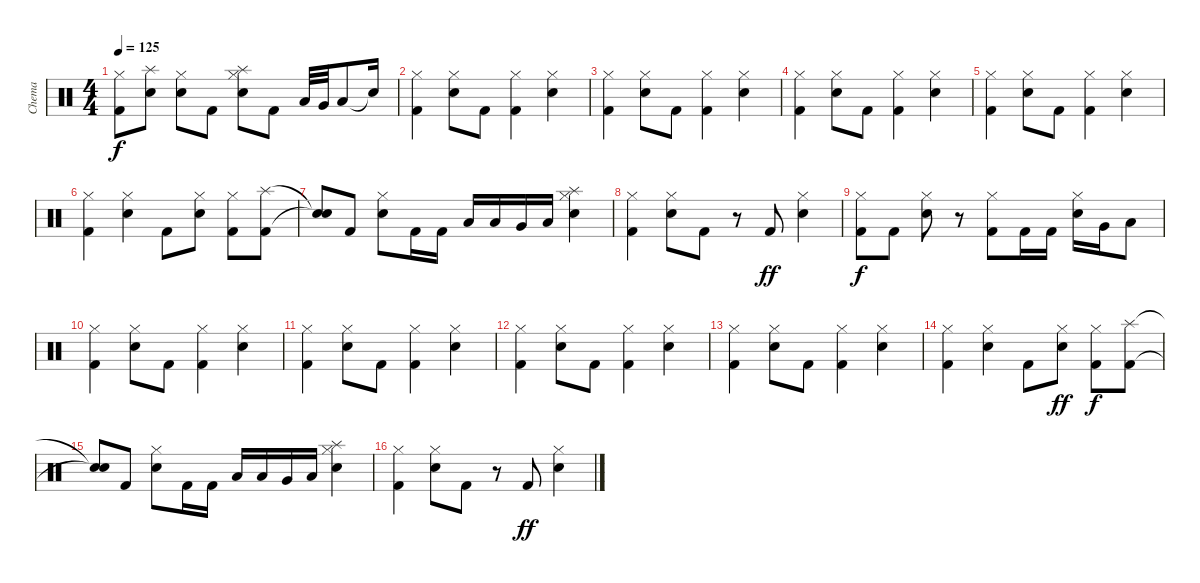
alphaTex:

\track ("Chema" "Chema") {instrument percussion}
\staff {score}
\articulation defaults
\ts (4 4)
\tempo 125
\clef neutral
\ks c
("Hi-Hat (closed)" "Kick (hit) 2").8{dy f} ("Snare (hit) 2" "Splash (hit)").8 ("Hi-Hat (closed)" "Snare (hit) 2").8 "Kick (hit) 2".8 ("Hi-Hat (closed)" "Snare (hit) 2" "Splash (hit)").8 "Kick (hit) 2".8 "Low Tom (hit)".32 "Very Low Tom (hit)".32 "Low Floor Tom (hit)".8 "Snare (hit)"{t}.16 |
("Hi-Hat (closed)" "Kick (hit) 2").4 ("Hi-Hat (closed)" "Snare (hit) 2").8 "Kick (hit) 2".8 ("Hi-Hat (closed)" "Kick (hit) 2").4 ("Hi-Hat (closed)" "Snare (hit) 2").4 |
("Hi-Hat (closed)" "Kick (hit) 2").4 ("Hi-Hat (closed)" "Snare (hit) 2").8 "Kick (hit) 2".8 ("Hi-Hat (closed)" "Kick (hit) 2").4 ("Hi-Hat (closed)" "Snare (hit) 2").4 |
("Hi-Hat (closed)" "Kick (hit) 2").4 ("Hi-Hat (closed)" "Snare (hit) 2").8 "Kick (hit) 2".8 ("Hi-Hat (closed)" "Kick (hit) 2").4 ("Hi-Hat (closed)" "Snare (hit) 2").4 |
("Hi-Hat (closed)" "Kick (hit) 2").4 ("Hi-Hat (closed)" "Snare (hit) 2").8 "Kick (hit) 2".8 ("Hi-Hat (closed)" "Kick (hit) 2").4 ("Hi-Hat (closed)" "Snare (hit) 2").4 |
("Hi-Hat (closed)" "Kick (hit) 2").4 ("Hi-Hat (closed)" "Snare (hit) 2").4 "Kick (hit) 2".8 ("Hi-Hat (closed)" "Snare (hit) 2").8 ("Hi-Hat (closed)" "Kick (hit) 2").8 ("Kick (hit) 2" "Splash (hit)").8 |
("Snare (hit)"{t} "Snare (hit)"{t}).8 "Kick (hit) 2".8 ("Hi-Hat (closed)" "Snare (hit) 2").8 "Kick (hit) 2".16 "Kick (hit) 2".16 "Low Tom (hit)".16 "Low Tom (hit)".16 "Very Low Tom (hit)".16 "Low Floor Tom (hit)".16 ("Hi-Hat (closed)" "Snare (hit) 2" "Splash (hit)").4 |
("Hi-Hat (closed)" "Kick (hit) 2").4 ("Hi-Hat (closed)" "Snare (hit) 2").8 "Kick (hit) 2".8 r.8 "Kick (hit) 2".8{dy ff} ("Hi-Hat (closed)" "Snare (hit) 2").4 |
("Hi-Hat (closed)" "Kick (hit) 2").8{dy f} "Kick (hit) 2".8 ("Hi-Hat (closed)" "Snare (hit) 2").8 r.8 ("Hi-Hat (closed)" "Kick (hit) 2").8 "Kick (hit) 2".16{volume 14} "Kick (hit) 2".16 ("Hi-Hat (closed)" "Snare (hit) 2").16 "Very Low Tom (hit)".16 "Low Floor Tom (hit)".8 |
("Hi-Hat (closed)" "Kick (hit) 2").4{volume 13} ("Hi-Hat (closed)" "Snare (hit) 2").8 "Kick (hit) 2".8 ("Hi-Hat (closed)" "Kick (hit) 2").4 ("Hi-Hat (closed)" "Snare (hit) 2").4 |
("Hi-Hat (closed)" "Kick (hit) 2").4 ("Hi-Hat (closed)" "Snare (hit) 2").8 "Kick (hit) 2".8 ("Hi-Hat (closed)" "Kick (hit) 2").4 ("Hi-Hat (closed)" "Snare (hit) 2").4 |
("Hi-Hat (closed)" "Kick (hit) 2").4 ("Hi-Hat (closed)" "Snare (hit) 2").8 "Kick (hit) 2".8 ("Hi-Hat (closed)" "Kick (hit) 2").4 ("Hi-Hat (closed)" "Snare (hit) 2").4 |
("Hi-Hat (closed)" "Kick (hit) 2").4 ("Hi-Hat (closed)" "Snare (hit) 2").8 "Kick (hit) 2".8 ("Hi-Hat (closed)" "Kick (hit) 2").4 ("Hi-Hat (closed)" "Snare (hit) 2").4 |
("Hi-Hat (closed)" "Kick (hit) 2").4 ("Hi-Hat (closed)" "Snare (hit) 2").4 "Kick (hit) 2".8 ("Hi-Hat (closed)" "Snare (hit) 2").8{dy ff} ("Hi-Hat (closed)" "Kick (hit) 2").8{dy f} ("Kick (hit) 2" "Splash (hit)").8 |
("Snare (hit)"{t} "Snare (hit)"{t}).8 "Kick (hit) 2".8 ("Hi-Hat (closed)" "Snare (hit) 2").8 "Kick (hit) 2".16 "Kick (hit) 2".16 "Low Tom (hit)".16 "Low Tom (hit)".16 "Very Low Tom (hit)".16 "Low Floor Tom (hit)".16 ("Hi-Hat (closed)" "Snare (hit) 2" "Splash (hit)").4 |
("Hi-Hat (closed)" "Kick (hit) 2").4 ("Hi-Hat (closed)" "Snare (hit) 2").8 "Kick (hit) 2".8 r.8 "Kick (hit) 2".8{dy ff} ("Hi-Hat (closed)" "Snare (hit) 2").4
